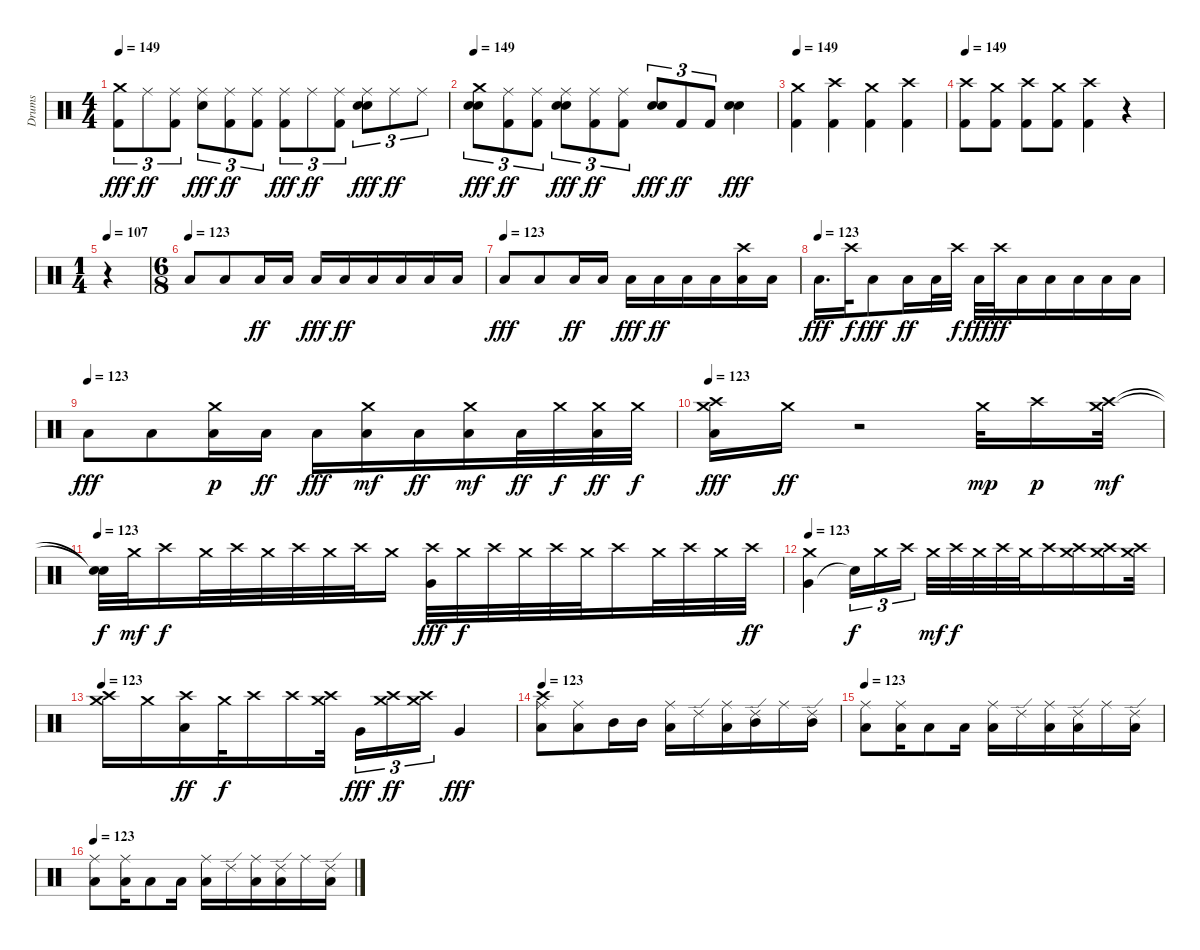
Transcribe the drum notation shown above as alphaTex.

\track ("Drums" "Drums") {instrument percussion}
\staff {score}
\articulation defaults
\ts (4 4)
\tempo 149
\clef neutral
\ks c
("Kick (hit) 2" "Crash medium (hit)").8{tu (3 2) dy fff} "Ride (middle)".8{tu (3 2) dy ff} ("Kick (hit) 2" "Ride (middle)").8{tu (3 2)} ("Snare (hit) 2" "Ride (middle)").8{tu (3 2) dy fff} ("Kick (hit) 2" "Ride (middle)").8{tu (3 2) dy ff} ("Kick (hit) 2" "Ride (middle)").8{tu (3 2)} ("Kick (hit) 2" "Ride (middle)").8{tu (3 2) dy fff} "Ride (middle)".8{tu (3 2) dy ff} ("Kick (hit) 2" "Ride (middle)").8{tu (3 2)} ("Snare (hit) 2" "Ride (middle)" "Snare (hit) 2").8{tu (3 2) dy fff} "Ride (middle)".8{tu (3 2) dy ff} "Ride (middle)".8{tu (3 2)} |
\tempo 149
("Snare (hit) 2" "Crash medium (hit)" "Snare (hit) 2").8{tu (3 2) dy fff} ("Kick (hit) 2" "Ride (middle)").8{tu (3 2) dy ff} ("Kick (hit) 2" "Ride (middle)").8{tu (3 2)} ("Snare (hit) 2" "Ride (middle)" "Snare (hit) 2").8{tu (3 2) dy fff} ("Kick (hit) 2" "Ride (middle)").8{tu (3 2) dy ff} ("Kick (hit) 2" "Ride (middle)").8{tu (3 2)} ("Snare (hit) 2" "Snare (hit) 2").8{tu (3 2) dy fff} "Kick (hit) 2".8{tu (3 2) dy ff} "Kick (hit) 2".8{tu (3 2)} ("Snare (hit) 2" "Snare (hit) 2").4{dy fff} |
\tempo 149
("Kick (hit) 2" "Crash medium (hit)").4 ("Kick (hit) 2" "Crash high (hit)").4 ("Kick (hit) 2" "Crash medium (hit)").4 ("Kick (hit) 2" "Crash high (hit)").4 |
\tempo 149
("Kick (hit) 2" "Crash high (hit)").8 ("Kick (hit) 2" "Crash medium (hit)").8 ("Kick (hit) 2" "Crash high (hit)").8 ("Kick (hit) 2" "Crash medium (hit)").8 ("Kick (hit) 2" "Crash high (hit)").4 r.4 |
\ts (1 4)
\tempo 107
r.4 |
\ts (6 8)
\tempo (123)
"Low Floor Tom (hit)".8 "Low Floor Tom (hit)".8 "Low Floor Tom (hit)".16{dy ff} "Low Floor Tom (hit)".16 "Low Floor Tom (hit)".16{dy fff} "Low Floor Tom (hit)".16{dy ff} "Low Floor Tom (hit)".16 "Low Floor Tom (hit)".16 "Low Floor Tom (hit)".16 "Low Floor Tom (hit)".16 |
\tempo (123)
"Low Floor Tom (hit)".8{dy fff} "Low Floor Tom (hit)".8 "Low Floor Tom (hit)".16{dy ff} "Low Floor Tom (hit)".16 "Low Floor Tom (hit)".16{dy fff} "Low Floor Tom (hit)".16{dy ff} "Low Floor Tom (hit)".16 "Low Floor Tom (hit)".16 ("Crash high (hit)" "Low Floor Tom (hit)").16 "Low Floor Tom (hit)".16 |
\tempo (123)
"Low Floor Tom (hit)".16{d dy fff} "Crash high (hit)".32{dy f} "Low Floor Tom (hit)".8{dy fff} "Low Floor Tom (hit)".16{dy ff} "Low Floor Tom (hit)".32 "Crash high (hit)".32{dy f} "Low Floor Tom (hit)".32{dy fff} "Crash high (hit)".32{dy ff} "Low Floor Tom (hit)".16 "Low Floor Tom (hit)".16 "Low Floor Tom (hit)".16 "Low Floor Tom (hit)".16 "Low Floor Tom (hit)".16 |
\tempo (123)
"Low Floor Tom (hit)".8{dy fff} "Low Floor Tom (hit)".8 ("Low Floor Tom (hit)" "Crash medium (hit)").16{dy p} "Low Floor Tom (hit)".16{dy ff} "Low Floor Tom (hit)".16{dy fff} ("Low Floor Tom (hit)" "Crash medium (hit)").16{dy mf} "Low Floor Tom (hit)".16{dy ff} ("Low Floor Tom (hit)" "Crash medium (hit)").16{dy mf} "Low Floor Tom (hit)".32{dy ff} "Crash medium (hit)".32{dy f} ("Low Floor Tom (hit)" "Crash medium (hit)").32{dy ff} "Crash medium (hit)".32{dy f} |
\tempo 123
("Low Floor Tom (hit)" "Crash high (hit)" "Crash medium (hit)").16{dy fff} "Crash medium (hit)".16{dy ff} r.2 "Crash medium (hit)".32{dy mp} "Crash high (hit)".16{dy p} ("Crash medium (hit)" "Crash high (hit)").32{dy mf} |
\tempo 123
("Snare (hit)"{t} "Snare (hit)"{t}).32{dy f} "Crash medium (hit)".32{dy mf} "Crash high (hit)".16{dy f} "Crash medium (hit)".32 "Crash high (hit)".32 "Crash medium (hit)".32 "Crash high (hit)".32 "Crash medium (hit)".32 "Crash high (hit)".32 "Crash medium (hit)".16 ("Crash high (hit)" "Very Low Tom (hit)").32{dy fff} "Crash medium (hit)".32{dy f} "Crash high (hit)".32 "Crash medium (hit)".32 "Crash high (hit)".32 "Crash medium (hit)".32 "Crash high (hit)".16 "Crash medium (hit)".32 "Crash high (hit)".32 "Crash medium (hit)".32 "Crash high (hit)".32{dy ff} |
\tempo 123
("Very Low Tom (hit)" "Crash medium (hit)").4 "Snare (hit)"{t}.16{tu (3 2) dy f} "Crash medium (hit)".16{tu (3 2)} "Crash high (hit)".16{tu (3 2)} "Crash medium (hit)".32{dy mf} "Crash high (hit)".32{dy f} "Crash medium (hit)".32 "Crash high (hit)".32 "Crash medium (hit)".32 "Crash high (hit)".16 ("Crash medium (hit)" "Crash high (hit)").16 ("Crash medium (hit)" "Crash high (hit)").16 ("Crash medium (hit)" "Crash high (hit)").32 |
\tempo 123
("Crash medium (hit)" "Crash high (hit)").16 "Crash medium (hit)".16 ("Low Tom (hit)" "Crash high (hit)").16{dy ff} "Crash medium (hit)".32{dy f} "Crash high (hit)".16 "Crash high (hit)".16 ("Crash medium (hit)" "Crash high (hit)").32 "Very Low Tom (hit)".16{tu (3 2) dy fff} ("Crash medium (hit)" "Crash high (hit)").16{tu (3 2) dy ff} ("Crash medium (hit)" "Crash high (hit)").16{tu (3 2)} "Very Low Tom (hit)".4{dy fff} |
\tempo 123
("Low Floor Tom (hit)" "Ride (middle)" "Crash high (hit)").8 ("Low Floor Tom (hit)" "Ride (middle)").8 "Mid Tom (hit)".16 "Mid Tom (hit)".16 ("Low Floor Tom (hit)" "Ride (middle)").16 "Ride (edge) 2".16 ("Low Floor Tom (hit)" "Ride (middle)").16 ("Mid Tom (hit)" "Ride (edge) 2").16 "Ride (middle)".16 ("Mid Tom (hit)" "Ride (edge) 2").16 |
\tempo 123
("Low Floor Tom (hit)" "Ride (middle)").8 ("Low Floor Tom (hit)" "Ride (middle)").16 "Low Tom (hit)".8 "Low Tom (hit)".16 ("Low Floor Tom (hit)" "Ride (middle)").16 "Ride (edge) 2".16 ("Low Floor Tom (hit)" "Ride (middle)").16 ("Low Tom (hit)" "Ride (edge) 2").16 "Ride (middle)".16 ("Low Tom (hit)" "Ride (edge) 2").16 |
\tempo 123
("Low Floor Tom (hit)" "Ride (middle)").8 ("Low Floor Tom (hit)" "Ride (middle)").16 "Low Tom (hit)".8 "Low Tom (hit)".16 ("Low Floor Tom (hit)" "Ride (middle)").16 "Ride (edge) 2".16 ("Low Floor Tom (hit)" "Ride (middle)").16 ("Low Tom (hit)" "Ride (edge) 2").16 "Ride (middle)".16 ("Low Tom (hit)" "Ride (edge) 2").16
